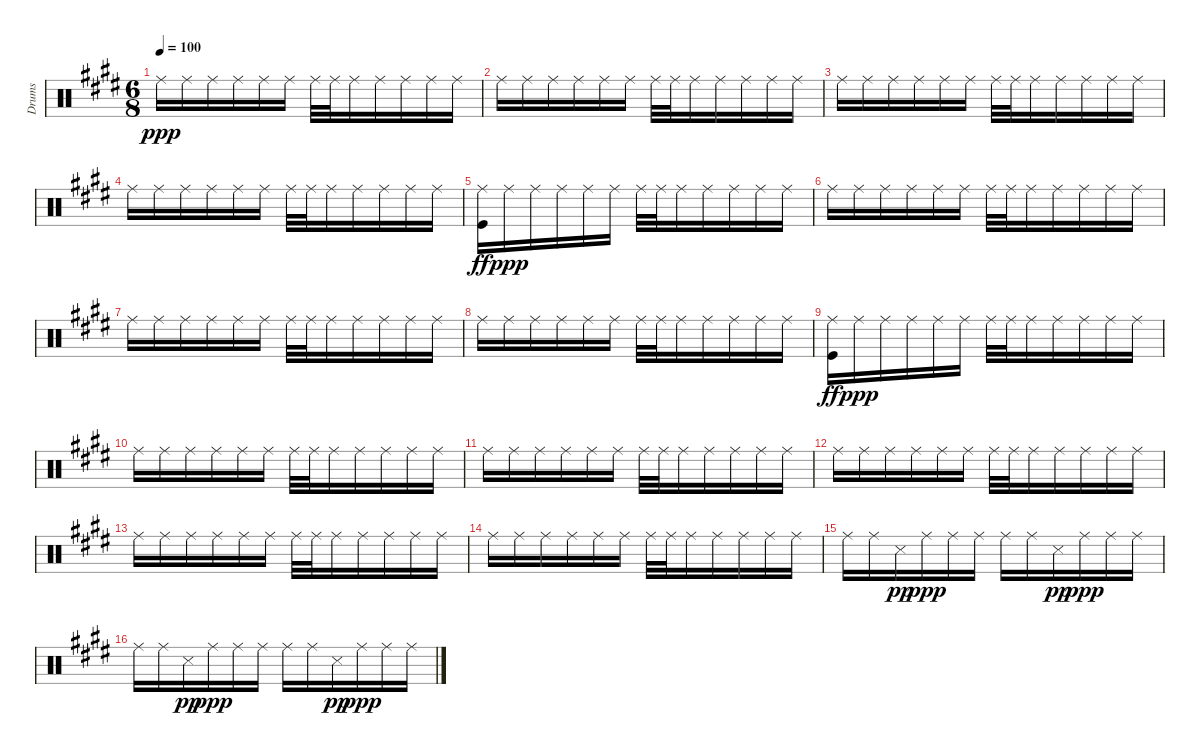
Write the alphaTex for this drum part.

\track ("Drums" "Drums") {instrument percussion}
\staff {score}
\articulation defaults
\ts (6 8)
\tempo 100
\clef neutral
\ks c#minor "Ride (middle)".16{dy ppp} "Ride (middle)".16 "Ride (middle)".16 "Ride (middle)".16 "Ride (middle)".16 "Ride (middle)".16 "Ride (middle)".32 "Ride (middle)".32 "Ride (middle)".16 "Ride (middle)".16 "Ride (middle)".16 "Ride (middle)".16 "Ride (middle)".16
|
"Ride (middle)".16 "Ride (middle)".16 "Ride (middle)".16 "Ride (middle)".16 "Ride (middle)".16 "Ride (middle)".16 "Ride (middle)".32 "Ride (middle)".32 "Ride (middle)".16 "Ride (middle)".16 "Ride (middle)".16 "Ride (middle)".16 "Ride (middle)".16 |
"Ride (middle)".16 "Ride (middle)".16 "Ride (middle)".16 "Ride (middle)".16 "Ride (middle)".16 "Ride (middle)".16 "Ride (middle)".32 "Ride (middle)".32 "Ride (middle)".16 "Ride (middle)".16 "Ride (middle)".16 "Ride (middle)".16 "Ride (middle)".16 |
"Ride (middle)".16 "Ride (middle)".16 "Ride (middle)".16 "Ride (middle)".16 "Ride (middle)".16 "Ride (middle)".16 "Ride (middle)".32 "Ride (middle)".32 "Ride (middle)".16 "Ride (middle)".16 "Ride (middle)".16 "Ride (middle)".16 "Ride (middle)".16 |
("Ride (middle)" "Kick (hit)").16{dy ff} "Ride (middle)".16{dy ppp} "Ride (middle)".16 "Ride (middle)".16 "Ride (middle)".16 "Ride (middle)".16 "Ride (middle)".32 "Ride (middle)".32 "Ride (middle)".16 "Ride (middle)".16 "Ride (middle)".16 "Ride (middle)".16 "Ride (middle)".16 |
"Ride (middle)".16 "Ride (middle)".16 "Ride (middle)".16 "Ride (middle)".16 "Ride (middle)".16 "Ride (middle)".16 "Ride (middle)".32 "Ride (middle)".32 "Ride (middle)".16 "Ride (middle)".16 "Ride (middle)".16 "Ride (middle)".16 "Ride (middle)".16 |
"Ride (middle)".16 "Ride (middle)".16 "Ride (middle)".16 "Ride (middle)".16 "Ride (middle)".16 "Ride (middle)".16 "Ride (middle)".32 "Ride (middle)".32 "Ride (middle)".16 "Ride (middle)".16 "Ride (middle)".16 "Ride (middle)".16 "Ride (middle)".16 |
"Ride (middle)".16 "Ride (middle)".16 "Ride (middle)".16 "Ride (middle)".16 "Ride (middle)".16 "Ride (middle)".16 "Ride (middle)".32 "Ride (middle)".32 "Ride (middle)".16 "Ride (middle)".16 "Ride (middle)".16 "Ride (middle)".16 "Ride (middle)".16 |
("Ride (middle)" "Kick (hit)").16{dy ff} "Ride (middle)".16{dy ppp} "Ride (middle)".16 "Ride (middle)".16 "Ride (middle)".16 "Ride (middle)".16 "Ride (middle)".32 "Ride (middle)".32 "Ride (middle)".16 "Ride (middle)".16 "Ride (middle)".16 "Ride (middle)".16 "Ride (middle)".16 |
"Ride (middle)".16 "Ride (middle)".16 "Ride (middle)".16 "Ride (middle)".16 "Ride (middle)".16 "Ride (middle)".16 "Ride (middle)".32 "Ride (middle)".32 "Ride (middle)".16 "Ride (middle)".16 "Ride (middle)".16 "Ride (middle)".16 "Ride (middle)".16 |
"Ride (middle)".16 "Ride (middle)".16 "Ride (middle)".16 "Ride (middle)".16 "Ride (middle)".16 "Ride (middle)".16 "Ride (middle)".32 "Ride (middle)".32 "Ride (middle)".16 "Ride (middle)".16 "Ride (middle)".16 "Ride (middle)".16 "Ride (middle)".16 |
"Ride (middle)".16 "Ride (middle)".16 "Ride (middle)".16 "Ride (middle)".16 "Ride (middle)".16 "Ride (middle)".16 "Ride (middle)".32 "Ride (middle)".32 "Ride (middle)".16 "Ride (middle)".16 "Ride (middle)".16 "Ride (middle)".16 "Ride (middle)".16 |
"Ride (middle)".16 "Ride (middle)".16 "Ride (middle)".16 "Ride (middle)".16 "Ride (middle)".16 "Ride (middle)".16 "Ride (middle)".32 "Ride (middle)".32 "Ride (middle)".16 "Ride (middle)".16 "Ride (middle)".16 "Ride (middle)".16 "Ride (middle)".16 |
"Ride (middle)".16 "Ride (middle)".16 "Ride (middle)".16 "Ride (middle)".16 "Ride (middle)".16 "Ride (middle)".16 "Ride (middle)".32 "Ride (middle)".32 "Ride (middle)".16 "Ride (middle)".16 "Ride (middle)".16 "Ride (middle)".16 "Ride (middle)".16 |
"Ride (middle)".16 "Ride (middle)".16 "Snare (side stick) 3".16{dy pp} "Ride (middle)".16{dy ppp} "Ride (middle)".16 "Ride (middle)".16 "Ride (middle)".16 "Ride (middle)".16 "Snare (side stick) 3".16{dy pp} "Ride (middle)".16{dy ppp} "Ride (middle)".16 "Ride (middle)".16 |
"Ride (middle)".16 "Ride (middle)".16 "Snare (side stick) 3".16{dy pp} "Ride (middle)".16{dy ppp} "Ride (middle)".16 "Ride (middle)".16 "Ride (middle)".16 "Ride (middle)".16 "Snare (side stick) 3".16{dy pp} "Ride (middle)".16{dy ppp} "Ride (middle)".16 "Ride (middle)".16
